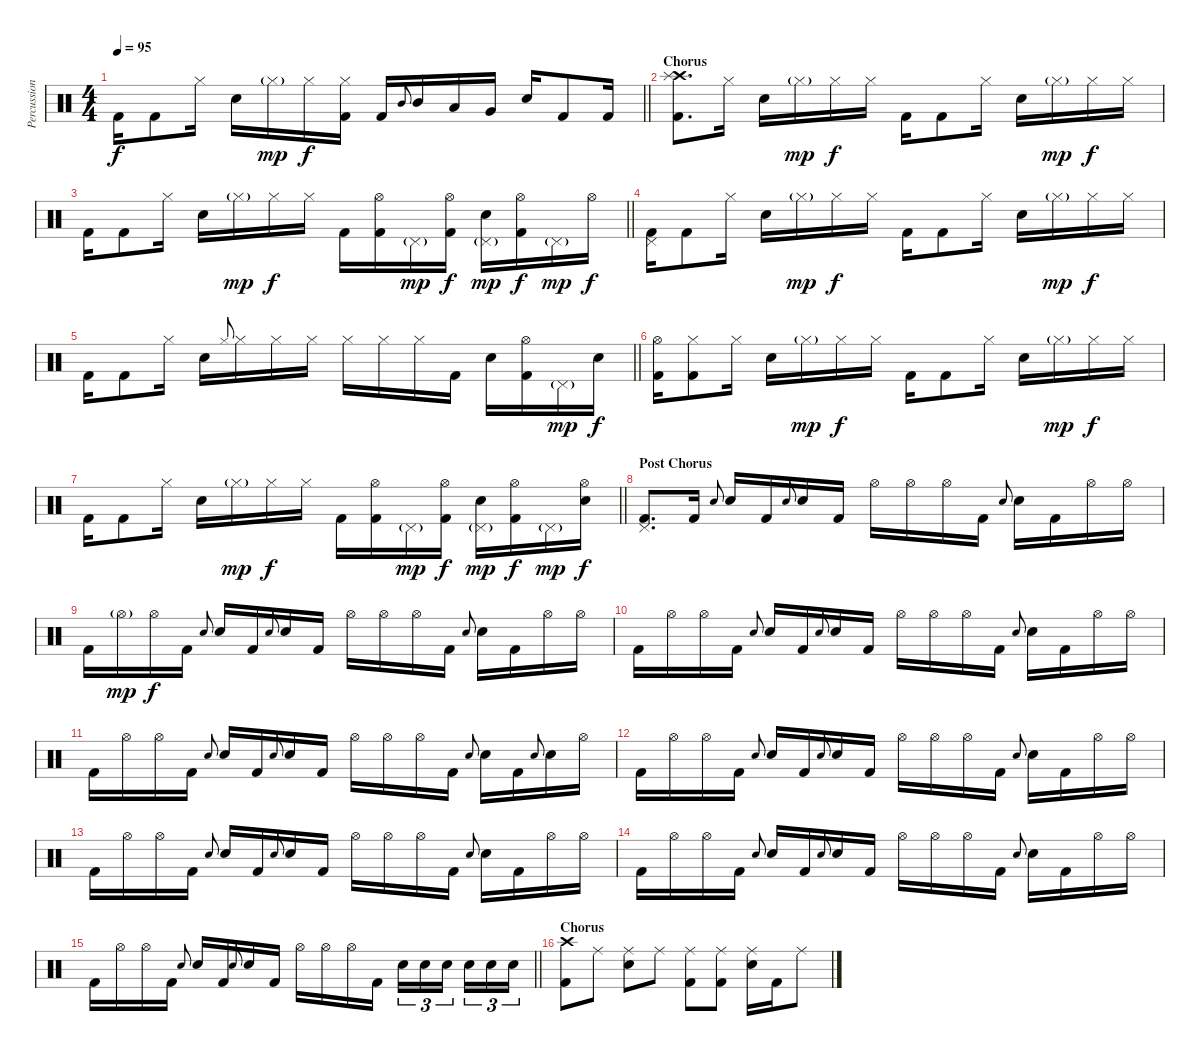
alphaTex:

\track ("Percussion" "Percussion") {instrument percussion}
\staff {score}
\articulation defaults
\ts (4 4)
\tempo 95
\clef neutral
\barLineRight lightlight
\ks c "Kick (hit) 2".16{dy f} "Kick (hit) 2".8 "Hi-Hat (closed)".16 "Electric Snare (hit)".16 "Hi-Hat (closed)"{g}.16{dy mp} "Hi-Hat (closed)".16{dy f}
("Hi-Hat (closed)" "Kick (hit) 2").16 "Kick (hit) 2".16 "Mid Tom (hit)".8{gr onbeat} "Mid Tom (hit)".16 "Low Tom (hit)".16 "Very Low Tom (hit)".16 "Electric Snare (hit)".16 "Kick (hit) 2".8 "Kick (hit) 2".16 |
\section ("" "Chorus")
("Crash high (hit)" "Splash (hit)" "Kick (hit) 2").8{d} "Hi-Hat (closed)".16 "Electric Snare (hit)".16 "Hi-Hat (closed)"{g}.16{dy mp} "Hi-Hat (closed)".16{dy f} "Hi-Hat (closed)".16 "Kick (hit) 2".16 "Kick (hit) 2".8 "Hi-Hat (closed)".16 "Electric Snare (hit)".16 "Hi-Hat (closed)"{g}.16{dy mp} "Hi-Hat (closed)".16{dy f} "Hi-Hat (closed)".16 |
\barLineRight lightlight "Kick (hit) 2".16 "Kick (hit) 2".8 "Hi-Hat (closed)".16 "Electric Snare (hit)".16 "Hi-Hat (closed)"{g}.16{dy mp} "Hi-Hat (closed)".16{dy f} "Hi-Hat (closed)".16 "Kick (hit) 2".16
("Hi-Hat (open)" "Kick (hit) 2").16 "Pedal Hi-Hat (hit)"{g}.16{dy mp} ("Hi-Hat (open)" "Kick (hit) 2").16{dy f} ("Pedal Hi-Hat (hit)"{g} "Electric Snare (hit)").16{dy mp} ("Hi-Hat (open)" "Kick (hit) 2").16{dy f} "Pedal Hi-Hat (hit)"{g}.16{dy mp} "Hi-Hat (open)".16{dy f} |
("Pedal Hi-Hat (hit)" "Kick (hit) 2").16 "Kick (hit) 2".8 "Hi-Hat (closed)".16 "Electric Snare (hit)".16 "Hi-Hat (closed)"{g}.16{dy mp} "Hi-Hat (closed)".16{dy f} "Hi-Hat (closed)".16 "Kick (hit) 2".16 "Kick (hit) 2".8 "Hi-Hat (closed)".16 "Electric Snare (hit)".16 "Hi-Hat (closed)"{g}.16{dy mp} "Hi-Hat (closed)".16{dy f} "Hi-Hat (closed)".16 |
\barLineRight lightlight "Kick (hit) 2".16 "Kick (hit) 2".8 "Hi-Hat (closed)".16 "Electric Snare (hit)".16 "Hi-Hat (closed)".8{gr onbeat} "Hi-Hat (closed)".16 "Hi-Hat (closed)".16 "Hi-Hat (closed)".16 "Hi-Hat (closed)".16 "Hi-Hat (closed)".16 "Hi-Hat (closed)".16 "Kick (hit) 2".16 "Electric Snare (hit)".16
("Hi-Hat (open)" "Kick (hit) 2").16 "Pedal Hi-Hat (hit)"{g}.16{dy mp} "Electric Snare (hit)".16{dy f} |
("Hi-Hat (open)" "Kick (hit) 2").16 ("Hi-Hat (closed)" "Kick (hit) 2").8 "Hi-Hat (closed)".16 "Electric Snare (hit)".16 "Hi-Hat (closed)"{g}.16{dy mp} "Hi-Hat (closed)".16{dy f} "Hi-Hat (closed)".16 "Kick (hit) 2".16 "Kick (hit) 2".8 "Hi-Hat (closed)".16 "Electric Snare (hit)".16 "Hi-Hat (closed)"{g}.16{dy mp} "Hi-Hat (closed)".16{dy f} "Hi-Hat (closed)".16 |
\barLineRight lightlight "Kick (hit) 2".16 "Kick (hit) 2".8 "Hi-Hat (closed)".16 "Electric Snare (hit)".16 "Hi-Hat (closed)"{g}.16{dy mp} "Hi-Hat (closed)".16{dy f} "Hi-Hat (closed)".16 "Kick (hit) 2".16
("Hi-Hat (open)" "Kick (hit) 2").16 "Pedal Hi-Hat (hit)"{g}.16{dy mp} ("Hi-Hat (open)" "Kick (hit) 2").16{dy f} ("Pedal Hi-Hat (hit)"{g} "Electric Snare (hit)").16{dy mp} ("Hi-Hat (open)" "Kick (hit) 2").16{dy f} "Pedal Hi-Hat (hit)"{g}.16{dy mp} ("Hi-Hat (open)" "Electric Snare (hit)").16{dy f} |
\section ("" "Post Chorus")
("Pedal Hi-Hat (hit)" "Kick (hit) 2").8{d} "Kick (hit) 2".16 "Electric Snare (hit)".8{gr onbeat} "Electric Snare (hit)".16 "Kick (hit) 2".16 "Electric Snare (hit)".8{gr onbeat} "Electric Snare (hit)".16 "Kick (hit) 2".16 "Hi-Hat (open)".16 "Hi-Hat (open)".16 "Hi-Hat (open)".16 "Kick (hit) 2".16 "Electric Snare (hit)".8{gr onbeat} "Electric Snare (hit)".16 "Kick (hit) 2".16 "Hi-Hat (open)".16 "Hi-Hat (open)".16 |
"Kick (hit) 2".16 "Hi-Hat (open)"{g}.16{dy mp} "Hi-Hat (open)".16{dy f} "Kick (hit) 2".16 "Electric Snare (hit)".8{gr onbeat} "Electric Snare (hit)".16 "Kick (hit) 2".16 "Electric Snare (hit)".8{gr onbeat} "Electric Snare (hit)".16 "Kick (hit) 2".16 "Hi-Hat (open)".16 "Hi-Hat (open)".16 "Hi-Hat (open)".16 "Kick (hit) 2".16 "Electric Snare (hit)".8{gr onbeat} "Electric Snare (hit)".16 "Kick (hit) 2".16 "Hi-Hat (open)".16 "Hi-Hat (open)".16 |
"Kick (hit) 2".16 "Hi-Hat (open)".16 "Hi-Hat (open)".16 "Kick (hit) 2".16 "Electric Snare (hit)".8{gr onbeat} "Electric Snare (hit)".16 "Kick (hit) 2".16 "Electric Snare (hit)".8{gr onbeat} "Electric Snare (hit)".16 "Kick (hit) 2".16 "Hi-Hat (open)".16 "Hi-Hat (open)".16 "Hi-Hat (open)".16 "Kick (hit) 2".16 "Electric Snare (hit)".8{gr onbeat} "Electric Snare (hit)".16 "Kick (hit) 2".16 "Hi-Hat (open)".16 "Hi-Hat (open)".16 |
"Kick (hit) 2".16 "Hi-Hat (open)".16 "Hi-Hat (open)".16 "Kick (hit) 2".16 "Electric Snare (hit)".8{gr onbeat} "Electric Snare (hit)".16 "Kick (hit) 2".16 "Electric Snare (hit)".8{gr onbeat} "Electric Snare (hit)".16 "Kick (hit) 2".16 "Hi-Hat (open)".16 "Hi-Hat (open)".16 "Hi-Hat (open)".16 "Kick (hit) 2".16 "Electric Snare (hit)".8{gr onbeat} "Electric Snare (hit)".16 "Kick (hit) 2".16 "Electric Snare (hit)".8{gr onbeat} "Electric Snare (hit)".16 "Hi-Hat (open)".16 |
"Kick (hit) 2".16 "Hi-Hat (open)".16 "Hi-Hat (open)".16 "Kick (hit) 2".16 "Electric Snare (hit)".8{gr onbeat} "Electric Snare (hit)".16 "Kick (hit) 2".16 "Electric Snare (hit)".8{gr onbeat} "Electric Snare (hit)".16 "Kick (hit) 2".16 "Hi-Hat (open)".16 "Hi-Hat (open)".16 "Hi-Hat (open)".16 "Kick (hit) 2".16 "Electric Snare (hit)".8{gr onbeat} "Electric Snare (hit)".16 "Kick (hit) 2".16 "Hi-Hat (open)".16 "Hi-Hat (open)".16 |
"Kick (hit) 2".16 "Hi-Hat (open)".16 "Hi-Hat (open)".16 "Kick (hit) 2".16 "Electric Snare (hit)".8{gr onbeat} "Electric Snare (hit)".16 "Kick (hit) 2".16 "Electric Snare (hit)".8{gr onbeat} "Electric Snare (hit)".16 "Kick (hit) 2".16 "Hi-Hat (open)".16 "Hi-Hat (open)".16 "Hi-Hat (open)".16 "Kick (hit) 2".16 "Electric Snare (hit)".8{gr onbeat} "Electric Snare (hit)".16 "Kick (hit) 2".16 "Hi-Hat (open)".16 "Hi-Hat (open)".16 |
"Kick (hit) 2".16 "Hi-Hat (open)".16 "Hi-Hat (open)".16 "Kick (hit) 2".16 "Electric Snare (hit)".8{gr onbeat} "Electric Snare (hit)".16 "Kick (hit) 2".16 "Electric Snare (hit)".8{gr onbeat} "Electric Snare (hit)".16 "Kick (hit) 2".16 "Hi-Hat (open)".16 "Hi-Hat (open)".16 "Hi-Hat (open)".16 "Kick (hit) 2".16 "Electric Snare (hit)".8{gr onbeat} "Electric Snare (hit)".16 "Kick (hit) 2".16 "Hi-Hat (open)".16 "Hi-Hat (open)".16 |
\barLineRight lightlight "Kick (hit) 2".16 "Hi-Hat (open)".16 "Hi-Hat (open)".16 "Kick (hit) 2".16 "Electric Snare (hit)".8{gr onbeat} "Electric Snare (hit)".16 "Kick (hit) 2".16 "Electric Snare (hit)".8{gr onbeat} "Electric Snare (hit)".16 "Kick (hit) 2".16 "Hi-Hat (open)".16 "Hi-Hat (open)".16 "Hi-Hat (open)".16 "Kick (hit) 2".16 "Electric Snare (hit)".16{tu (3 2)} "Electric Snare (hit)".16{tu (3 2)} "Electric Snare (hit)".16{tu (3 2) beam splitsecondary} "Electric Snare (hit)".16{tu (3 2)} "Electric Snare (hit)".16{tu (3 2)} "Electric Snare (hit)".16{tu (3 2)}
|
\section ("" "Chorus")
("Crash high (hit)" "Kick (hit) 2").8 "Ride (middle)".8 ("Ride (middle)" "Electric Snare (hit)").8 "Ride (middle)".8 ("Ride (middle)" "Kick (hit) 2").8 ("Ride (middle)" "Kick (hit) 2").8 ("Ride (middle)" "Electric Snare (hit)").16 "Kick (hit) 2".16 "Ride (middle)".8
